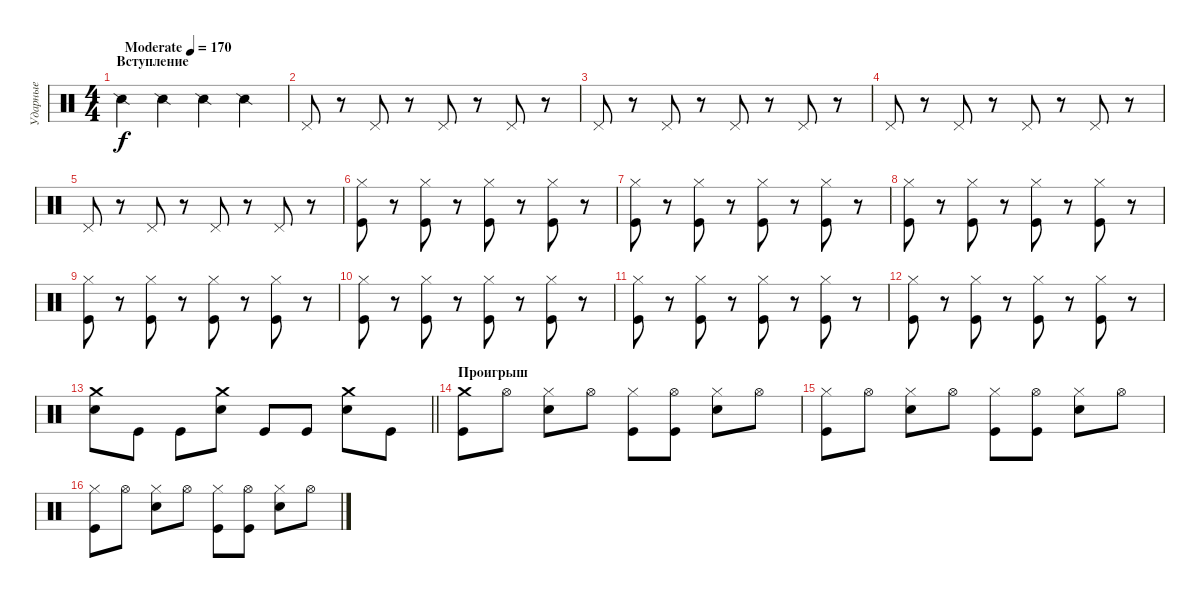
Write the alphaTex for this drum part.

\track ("Ударные" "Ударные") {instrument percussion}
\staff {score}
\articulation defaults
\ts (4 4)
\section ("" "Вступление")
\tempo (170 "Moderate")
\clef neutral
\ks c "Snare (side stick) 2".4{dy f} "Snare (side stick) 2".4 "Snare (side stick) 2".4 "Snare (side stick) 2".4
|
"Pedal Hi-Hat (hit)".8 r.8 "Pedal Hi-Hat (hit)".8 r.8 "Pedal Hi-Hat (hit)".8 r.8 "Pedal Hi-Hat (hit)".8 r.8 |
"Pedal Hi-Hat (hit)".8 r.8 "Pedal Hi-Hat (hit)".8 r.8 "Pedal Hi-Hat (hit)".8 r.8 "Pedal Hi-Hat (hit)".8 r.8 |
"Pedal Hi-Hat (hit)".8 r.8 "Pedal Hi-Hat (hit)".8 r.8 "Pedal Hi-Hat (hit)".8 r.8 "Pedal Hi-Hat (hit)".8 r.8 |
"Pedal Hi-Hat (hit)".8 r.8 "Pedal Hi-Hat (hit)".8 r.8 "Pedal Hi-Hat (hit)".8 r.8 "Pedal Hi-Hat (hit)".8 r.8 |
("Hi-Hat (closed)" "Kick (hit)").8 r.8 ("Hi-Hat (closed)" "Kick (hit)").8 r.8 ("Hi-Hat (closed)" "Kick (hit)").8 r.8 ("Hi-Hat (closed)" "Kick (hit)").8 r.8 |
("Hi-Hat (closed)" "Kick (hit)").8 r.8 ("Hi-Hat (closed)" "Kick (hit)").8 r.8 ("Hi-Hat (closed)" "Kick (hit)").8 r.8 ("Hi-Hat (closed)" "Kick (hit)").8 r.8 |
("Hi-Hat (closed)" "Kick (hit)").8 r.8 ("Hi-Hat (closed)" "Kick (hit)").8 r.8 ("Hi-Hat (closed)" "Kick (hit)").8 r.8 ("Hi-Hat (closed)" "Kick (hit)").8 r.8 |
("Hi-Hat (closed)" "Kick (hit)").8 r.8 ("Hi-Hat (closed)" "Kick (hit)").8 r.8 ("Hi-Hat (closed)" "Kick (hit)").8 r.8 ("Hi-Hat (closed)" "Kick (hit)").8 r.8 |
("Hi-Hat (closed)" "Kick (hit)").8 r.8 ("Hi-Hat (closed)" "Kick (hit)").8 r.8 ("Hi-Hat (closed)" "Kick (hit)").8 r.8 ("Hi-Hat (closed)" "Kick (hit)").8 r.8 |
("Hi-Hat (closed)" "Kick (hit)").8 r.8 ("Hi-Hat (closed)" "Kick (hit)").8 r.8 ("Hi-Hat (closed)" "Kick (hit)").8 r.8 ("Hi-Hat (closed)" "Kick (hit)").8 r.8 |
("Hi-Hat (closed)" "Kick (hit)").8 r.8 ("Hi-Hat (closed)" "Kick (hit)").8 r.8 ("Hi-Hat (closed)" "Kick (hit)").8 r.8 ("Hi-Hat (closed)" "Kick (hit)").8 r.8 |
\barLineRight lightlight
("Crash medium (hit)" "Electric Snare (hit)").8 "Kick (hit)".8 "Kick (hit)".8 ("Crash medium (hit)" "Electric Snare (hit)").8 "Kick (hit)".8 "Kick (hit)".8 ("Crash medium (hit)" "Electric Snare (hit)").8 "Kick (hit)".8 |
\section ("" "Проигрыш")
("Crash medium (hit)" "Kick (hit)").8 "Hi-Hat (open)".8 ("Hi-Hat (closed)" "Electric Snare (hit)").8 "Hi-Hat (open)".8 ("Hi-Hat (closed)" "Kick (hit)").8 ("Hi-Hat (open)" "Kick (hit)").8 ("Hi-Hat (closed)" "Electric Snare (hit)").8 "Hi-Hat (open)".8 |
("Hi-Hat (closed)" "Kick (hit)").8 "Hi-Hat (open)".8 ("Hi-Hat (closed)" "Electric Snare (hit)").8 "Hi-Hat (open)".8 ("Hi-Hat (closed)" "Kick (hit)").8 ("Hi-Hat (open)" "Kick (hit)").8 ("Hi-Hat (closed)" "Electric Snare (hit)").8 "Hi-Hat (open)".8 |
("Hi-Hat (closed)" "Kick (hit)").8 "Hi-Hat (open)".8 ("Hi-Hat (closed)" "Electric Snare (hit)").8 "Hi-Hat (open)".8 ("Hi-Hat (closed)" "Kick (hit)").8 ("Hi-Hat (open)" "Kick (hit)").8 ("Hi-Hat (closed)" "Electric Snare (hit)").8 "Hi-Hat (open)".8
